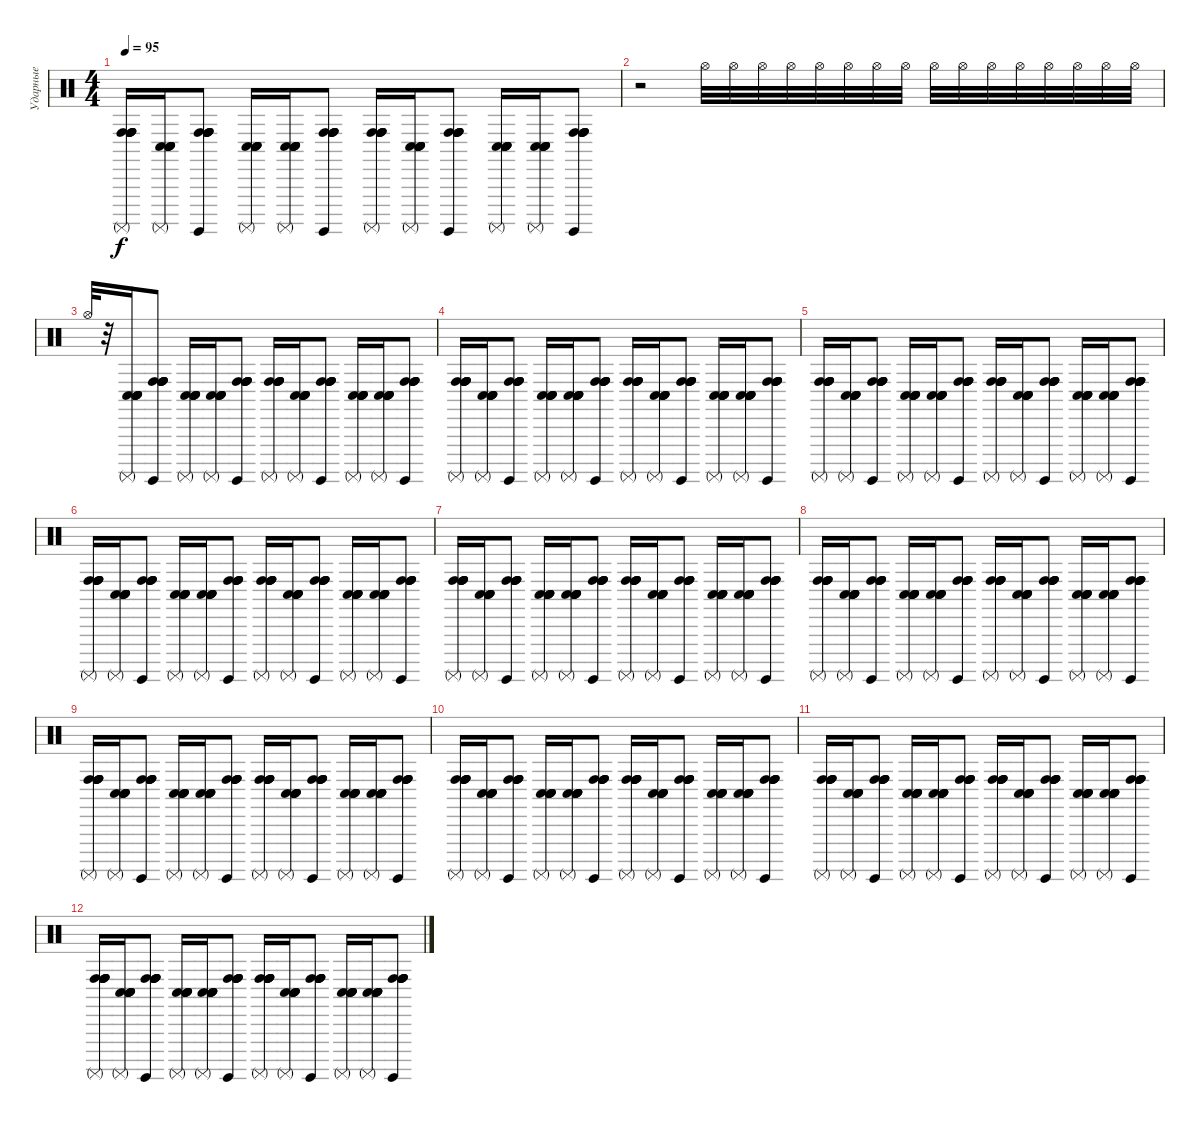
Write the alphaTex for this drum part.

\track ("Ударные" "Ударные") {instrument percussion}
\staff {score}
\articulation defaults
\ts (4 4)
\tempo 95
\clef neutral
\ks c
("Surdo (mute)" "Conga high (hit)" "Conga high (hit)" "Conga high (hit)" "Conga high (hit)" "Conga high (hit)").16{dy f} ("Surdo (mute)" "Conga low (hit)" "Conga low (hit)" "Conga low (hit)" "Conga low (hit)" "Conga low (hit)").16 ("Surdo (hit)" "Conga high (hit)" "Conga high (hit)" "Conga high (hit)" "Conga high (hit)" "Conga high (hit)").8 ("Surdo (mute)" "Conga low (hit)" "Conga low (hit)" "Conga low (hit)" "Conga low (hit)" "Conga low (hit)").16 ("Surdo (mute)" "Conga low (hit)" "Conga low (hit)" "Conga low (hit)" "Conga low (hit)" "Conga low (hit)").16 ("Surdo (hit)" "Conga high (hit)" "Conga high (hit)" "Conga high (hit)" "Conga high (hit)" "Conga high (hit)").8 ("Surdo (mute)" "Conga high (hit)" "Conga high (hit)" "Conga high (hit)" "Conga high (hit)" "Conga high (hit)").16 ("Surdo (mute)" "Conga low (hit)" "Conga low (hit)" "Conga low (hit)" "Conga low (hit)" "Conga low (hit)").16 ("Surdo (hit)" "Conga high (hit)" "Conga high (hit)" "Conga high (hit)" "Conga high (hit)" "Conga high (hit)").8 ("Surdo (mute)" "Conga low (hit)" "Conga low (hit)" "Conga low (hit)" "Conga low (hit)" "Conga low (hit)").16 ("Surdo (mute)" "Conga low (hit)" "Conga low (hit)" "Conga low (hit)" "Conga low (hit)" "Conga low (hit)").16 ("Surdo (hit)" "Conga high (hit)" "Conga high (hit)" "Conga high (hit)" "Conga high (hit)" "Conga high (hit)").8 |
r.2{volume 3} "Hi-Hat (open)".32{volume 10} "Hi-Hat (open)".32 "Hi-Hat (open)".32 "Hi-Hat (open)".32 "Hi-Hat (open)".32 "Hi-Hat (open)".32 "Hi-Hat (open)".32 "Hi-Hat (open)".32 "Hi-Hat (open)".32 "Hi-Hat (open)".32 "Hi-Hat (open)".32 "Hi-Hat (open)".32 "Hi-Hat (open)".32 "Hi-Hat (open)".32 "Hi-Hat (open)".32 "Hi-Hat (open)".32 |
"Hi-Hat (open)".32 r.32 ("Surdo (mute)" "Conga low (hit)" "Conga low (hit)" "Conga low (hit)" "Conga low (hit)" "Conga low (hit)").16 ("Surdo (hit)" "Conga high (hit)" "Conga high (hit)" "Conga high (hit)" "Conga high (hit)" "Conga high (hit)").8 ("Surdo (mute)" "Conga low (hit)" "Conga low (hit)" "Conga low (hit)" "Conga low (hit)" "Conga low (hit)").16 ("Surdo (mute)" "Conga low (hit)" "Conga low (hit)" "Conga low (hit)" "Conga low (hit)" "Conga low (hit)").16 ("Surdo (hit)" "Conga high (hit)" "Conga high (hit)" "Conga high (hit)" "Conga high (hit)" "Conga high (hit)").8{volume 7} ("Surdo (mute)" "Conga high (hit)" "Conga high (hit)" "Conga high (hit)" "Conga high (hit)" "Conga high (hit)").16 ("Surdo (mute)" "Conga low (hit)" "Conga low (hit)" "Conga low (hit)" "Conga low (hit)" "Conga low (hit)").16 ("Surdo (hit)" "Conga high (hit)" "Conga high (hit)" "Conga high (hit)" "Conga high (hit)" "Conga high (hit)").8 ("Surdo (mute)" "Conga low (hit)" "Conga low (hit)" "Conga low (hit)" "Conga low (hit)" "Conga low (hit)").16 ("Surdo (mute)" "Conga low (hit)" "Conga low (hit)" "Conga low (hit)" "Conga low (hit)" "Conga low (hit)").16 ("Surdo (hit)" "Conga high (hit)" "Conga high (hit)" "Conga high (hit)" "Conga high (hit)" "Conga high (hit)").8 |
("Surdo (mute)" "Conga high (hit)" "Conga high (hit)" "Conga high (hit)" "Conga high (hit)" "Conga high (hit)").16 ("Surdo (mute)" "Conga low (hit)" "Conga low (hit)" "Conga low (hit)" "Conga low (hit)" "Conga low (hit)").16 ("Surdo (hit)" "Conga high (hit)" "Conga high (hit)" "Conga high (hit)" "Conga high (hit)" "Conga high (hit)").8 ("Surdo (mute)" "Conga low (hit)" "Conga low (hit)" "Conga low (hit)" "Conga low (hit)" "Conga low (hit)").16 ("Surdo (mute)" "Conga low (hit)" "Conga low (hit)" "Conga low (hit)" "Conga low (hit)" "Conga low (hit)").16 ("Surdo (hit)" "Conga high (hit)" "Conga high (hit)" "Conga high (hit)" "Conga high (hit)" "Conga high (hit)").8 ("Surdo (mute)" "Conga high (hit)" "Conga high (hit)" "Conga high (hit)" "Conga high (hit)" "Conga high (hit)").16 ("Surdo (mute)" "Conga low (hit)" "Conga low (hit)" "Conga low (hit)" "Conga low (hit)" "Conga low (hit)").16 ("Surdo (hit)" "Conga high (hit)" "Conga high (hit)" "Conga high (hit)" "Conga high (hit)" "Conga high (hit)").8 ("Surdo (mute)" "Conga low (hit)" "Conga low (hit)" "Conga low (hit)" "Conga low (hit)" "Conga low (hit)").16 ("Surdo (mute)" "Conga low (hit)" "Conga low (hit)" "Conga low (hit)" "Conga low (hit)" "Conga low (hit)").16 ("Surdo (hit)" "Conga high (hit)" "Conga high (hit)" "Conga high (hit)" "Conga high (hit)" "Conga high (hit)").8 |
("Surdo (mute)" "Conga high (hit)" "Conga high (hit)" "Conga high (hit)" "Conga high (hit)" "Conga high (hit)").16 ("Surdo (mute)" "Conga low (hit)" "Conga low (hit)" "Conga low (hit)" "Conga low (hit)" "Conga low (hit)").16 ("Surdo (hit)" "Conga high (hit)" "Conga high (hit)" "Conga high (hit)" "Conga high (hit)" "Conga high (hit)").8 ("Surdo (mute)" "Conga low (hit)" "Conga low (hit)" "Conga low (hit)" "Conga low (hit)" "Conga low (hit)").16 ("Surdo (mute)" "Conga low (hit)" "Conga low (hit)" "Conga low (hit)" "Conga low (hit)" "Conga low (hit)").16 ("Surdo (hit)" "Conga high (hit)" "Conga high (hit)" "Conga high (hit)" "Conga high (hit)" "Conga high (hit)").8 ("Surdo (mute)" "Conga high (hit)" "Conga high (hit)" "Conga high (hit)" "Conga high (hit)" "Conga high (hit)").16 ("Surdo (mute)" "Conga low (hit)" "Conga low (hit)" "Conga low (hit)" "Conga low (hit)" "Conga low (hit)").16 ("Surdo (hit)" "Conga high (hit)" "Conga high (hit)" "Conga high (hit)" "Conga high (hit)" "Conga high (hit)").8 ("Surdo (mute)" "Conga low (hit)" "Conga low (hit)" "Conga low (hit)" "Conga low (hit)" "Conga low (hit)").16 ("Surdo (mute)" "Conga low (hit)" "Conga low (hit)" "Conga low (hit)" "Conga low (hit)" "Conga low (hit)").16 ("Surdo (hit)" "Conga high (hit)" "Conga high (hit)" "Conga high (hit)" "Conga high (hit)" "Conga high (hit)").8 |
("Surdo (mute)" "Conga high (hit)" "Conga high (hit)" "Conga high (hit)" "Conga high (hit)" "Conga high (hit)").16 ("Surdo (mute)" "Conga low (hit)" "Conga low (hit)" "Conga low (hit)" "Conga low (hit)" "Conga low (hit)").16 ("Surdo (hit)" "Conga high (hit)" "Conga high (hit)" "Conga high (hit)" "Conga high (hit)" "Conga high (hit)").8 ("Surdo (mute)" "Conga low (hit)" "Conga low (hit)" "Conga low (hit)" "Conga low (hit)" "Conga low (hit)").16 ("Surdo (mute)" "Conga low (hit)" "Conga low (hit)" "Conga low (hit)" "Conga low (hit)" "Conga low (hit)").16 ("Surdo (hit)" "Conga high (hit)" "Conga high (hit)" "Conga high (hit)" "Conga high (hit)" "Conga high (hit)").8 ("Surdo (mute)" "Conga high (hit)" "Conga high (hit)" "Conga high (hit)" "Conga high (hit)" "Conga high (hit)").16 ("Surdo (mute)" "Conga low (hit)" "Conga low (hit)" "Conga low (hit)" "Conga low (hit)" "Conga low (hit)").16 ("Surdo (hit)" "Conga high (hit)" "Conga high (hit)" "Conga high (hit)" "Conga high (hit)" "Conga high (hit)").8 ("Surdo (mute)" "Conga low (hit)" "Conga low (hit)" "Conga low (hit)" "Conga low (hit)" "Conga low (hit)").16 ("Surdo (mute)" "Conga low (hit)" "Conga low (hit)" "Conga low (hit)" "Conga low (hit)" "Conga low (hit)").16 ("Surdo (hit)" "Conga high (hit)" "Conga high (hit)" "Conga high (hit)" "Conga high (hit)" "Conga high (hit)").8 |
("Surdo (mute)" "Conga high (hit)" "Conga high (hit)" "Conga high (hit)" "Conga high (hit)" "Conga high (hit)").16 ("Surdo (mute)" "Conga low (hit)" "Conga low (hit)" "Conga low (hit)" "Conga low (hit)" "Conga low (hit)").16 ("Surdo (hit)" "Conga high (hit)" "Conga high (hit)" "Conga high (hit)" "Conga high (hit)" "Conga high (hit)").8 ("Surdo (mute)" "Conga low (hit)" "Conga low (hit)" "Conga low (hit)" "Conga low (hit)" "Conga low (hit)").16 ("Surdo (mute)" "Conga low (hit)" "Conga low (hit)" "Conga low (hit)" "Conga low (hit)" "Conga low (hit)").16 ("Surdo (hit)" "Conga high (hit)" "Conga high (hit)" "Conga high (hit)" "Conga high (hit)" "Conga high (hit)").8 ("Surdo (mute)" "Conga high (hit)" "Conga high (hit)" "Conga high (hit)" "Conga high (hit)" "Conga high (hit)").16 ("Surdo (mute)" "Conga low (hit)" "Conga low (hit)" "Conga low (hit)" "Conga low (hit)" "Conga low (hit)").16 ("Surdo (hit)" "Conga high (hit)" "Conga high (hit)" "Conga high (hit)" "Conga high (hit)" "Conga high (hit)").8 ("Surdo (mute)" "Conga low (hit)" "Conga low (hit)" "Conga low (hit)" "Conga low (hit)" "Conga low (hit)").16 ("Surdo (mute)" "Conga low (hit)" "Conga low (hit)" "Conga low (hit)" "Conga low (hit)" "Conga low (hit)").16 ("Surdo (hit)" "Conga high (hit)" "Conga high (hit)" "Conga high (hit)" "Conga high (hit)" "Conga high (hit)").8 |
("Surdo (mute)" "Conga high (hit)" "Conga high (hit)" "Conga high (hit)" "Conga high (hit)" "Conga high (hit)").16 ("Surdo (mute)" "Conga low (hit)" "Conga low (hit)" "Conga low (hit)" "Conga low (hit)" "Conga low (hit)").16 ("Surdo (hit)" "Conga high (hit)" "Conga high (hit)" "Conga high (hit)" "Conga high (hit)" "Conga high (hit)").8 ("Surdo (mute)" "Conga low (hit)" "Conga low (hit)" "Conga low (hit)" "Conga low (hit)" "Conga low (hit)").16 ("Surdo (mute)" "Conga low (hit)" "Conga low (hit)" "Conga low (hit)" "Conga low (hit)" "Conga low (hit)").16 ("Surdo (hit)" "Conga high (hit)" "Conga high (hit)" "Conga high (hit)" "Conga high (hit)" "Conga high (hit)").8 ("Surdo (mute)" "Conga high (hit)" "Conga high (hit)" "Conga high (hit)" "Conga high (hit)" "Conga high (hit)").16 ("Surdo (mute)" "Conga low (hit)" "Conga low (hit)" "Conga low (hit)" "Conga low (hit)" "Conga low (hit)").16 ("Surdo (hit)" "Conga high (hit)" "Conga high (hit)" "Conga high (hit)" "Conga high (hit)" "Conga high (hit)").8 ("Surdo (mute)" "Conga low (hit)" "Conga low (hit)" "Conga low (hit)" "Conga low (hit)" "Conga low (hit)").16 ("Surdo (mute)" "Conga low (hit)" "Conga low (hit)" "Conga low (hit)" "Conga low (hit)" "Conga low (hit)").16 ("Surdo (hit)" "Conga high (hit)" "Conga high (hit)" "Conga high (hit)" "Conga high (hit)" "Conga high (hit)").8 |
("Surdo (mute)" "Conga high (hit)" "Conga high (hit)" "Conga high (hit)" "Conga high (hit)" "Conga high (hit)").16 ("Surdo (mute)" "Conga low (hit)" "Conga low (hit)" "Conga low (hit)" "Conga low (hit)" "Conga low (hit)").16 ("Surdo (hit)" "Conga high (hit)" "Conga high (hit)" "Conga high (hit)" "Conga high (hit)" "Conga high (hit)").8 ("Surdo (mute)" "Conga low (hit)" "Conga low (hit)" "Conga low (hit)" "Conga low (hit)" "Conga low (hit)").16 ("Surdo (mute)" "Conga low (hit)" "Conga low (hit)" "Conga low (hit)" "Conga low (hit)" "Conga low (hit)").16 ("Surdo (hit)" "Conga high (hit)" "Conga high (hit)" "Conga high (hit)" "Conga high (hit)" "Conga high (hit)").8 ("Surdo (mute)" "Conga high (hit)" "Conga high (hit)" "Conga high (hit)" "Conga high (hit)" "Conga high (hit)").16 ("Surdo (mute)" "Conga low (hit)" "Conga low (hit)" "Conga low (hit)" "Conga low (hit)" "Conga low (hit)").16 ("Surdo (hit)" "Conga high (hit)" "Conga high (hit)" "Conga high (hit)" "Conga high (hit)" "Conga high (hit)").8 ("Surdo (mute)" "Conga low (hit)" "Conga low (hit)" "Conga low (hit)" "Conga low (hit)" "Conga low (hit)").16 ("Surdo (mute)" "Conga low (hit)" "Conga low (hit)" "Conga low (hit)" "Conga low (hit)" "Conga low (hit)").16 ("Surdo (hit)" "Conga high (hit)" "Conga high (hit)" "Conga high (hit)" "Conga high (hit)" "Conga high (hit)").8 |
("Surdo (mute)" "Conga high (hit)" "Conga high (hit)" "Conga high (hit)" "Conga high (hit)" "Conga high (hit)").16 ("Surdo (mute)" "Conga low (hit)" "Conga low (hit)" "Conga low (hit)" "Conga low (hit)" "Conga low (hit)").16 ("Surdo (hit)" "Conga high (hit)" "Conga high (hit)" "Conga high (hit)" "Conga high (hit)" "Conga high (hit)").8 ("Surdo (mute)" "Conga low (hit)" "Conga low (hit)" "Conga low (hit)" "Conga low (hit)" "Conga low (hit)").16 ("Surdo (mute)" "Conga low (hit)" "Conga low (hit)" "Conga low (hit)" "Conga low (hit)" "Conga low (hit)").16 ("Surdo (hit)" "Conga high (hit)" "Conga high (hit)" "Conga high (hit)" "Conga high (hit)" "Conga high (hit)").8 ("Surdo (mute)" "Conga high (hit)" "Conga high (hit)" "Conga high (hit)" "Conga high (hit)" "Conga high (hit)").16 ("Surdo (mute)" "Conga low (hit)" "Conga low (hit)" "Conga low (hit)" "Conga low (hit)" "Conga low (hit)").16 ("Surdo (hit)" "Conga high (hit)" "Conga high (hit)" "Conga high (hit)" "Conga high (hit)" "Conga high (hit)").8 ("Surdo (mute)" "Conga low (hit)" "Conga low (hit)" "Conga low (hit)" "Conga low (hit)" "Conga low (hit)").16 ("Surdo (mute)" "Conga low (hit)" "Conga low (hit)" "Conga low (hit)" "Conga low (hit)" "Conga low (hit)").16 ("Surdo (hit)" "Conga high (hit)" "Conga high (hit)" "Conga high (hit)" "Conga high (hit)" "Conga high (hit)").8 |
("Surdo (mute)" "Conga high (hit)" "Conga high (hit)" "Conga high (hit)" "Conga high (hit)" "Conga high (hit)").16 ("Surdo (mute)" "Conga low (hit)" "Conga low (hit)" "Conga low (hit)" "Conga low (hit)" "Conga low (hit)").16 ("Surdo (hit)" "Conga high (hit)" "Conga high (hit)" "Conga high (hit)" "Conga high (hit)" "Conga high (hit)").8 ("Surdo (mute)" "Conga low (hit)" "Conga low (hit)" "Conga low (hit)" "Conga low (hit)" "Conga low (hit)").16 ("Surdo (mute)" "Conga low (hit)" "Conga low (hit)" "Conga low (hit)" "Conga low (hit)" "Conga low (hit)").16 ("Surdo (hit)" "Conga high (hit)" "Conga high (hit)" "Conga high (hit)" "Conga high (hit)" "Conga high (hit)").8 ("Surdo (mute)" "Conga high (hit)" "Conga high (hit)" "Conga high (hit)" "Conga high (hit)" "Conga high (hit)").16 ("Surdo (mute)" "Conga low (hit)" "Conga low (hit)" "Conga low (hit)" "Conga low (hit)" "Conga low (hit)").16 ("Surdo (hit)" "Conga high (hit)" "Conga high (hit)" "Conga high (hit)" "Conga high (hit)" "Conga high (hit)").8 ("Surdo (mute)" "Conga low (hit)" "Conga low (hit)" "Conga low (hit)" "Conga low (hit)" "Conga low (hit)").16 ("Surdo (mute)" "Conga low (hit)" "Conga low (hit)" "Conga low (hit)" "Conga low (hit)" "Conga low (hit)").16 ("Surdo (hit)" "Conga high (hit)" "Conga high (hit)" "Conga high (hit)" "Conga high (hit)" "Conga high (hit)").8 |
("Surdo (mute)" "Conga high (hit)" "Conga high (hit)" "Conga high (hit)" "Conga high (hit)" "Conga high (hit)").16 ("Surdo (mute)" "Conga low (hit)" "Conga low (hit)" "Conga low (hit)" "Conga low (hit)" "Conga low (hit)").16 ("Surdo (hit)" "Conga high (hit)" "Conga high (hit)" "Conga high (hit)" "Conga high (hit)" "Conga high (hit)").8 ("Surdo (mute)" "Conga low (hit)" "Conga low (hit)" "Conga low (hit)" "Conga low (hit)" "Conga low (hit)").16 ("Surdo (mute)" "Conga low (hit)" "Conga low (hit)" "Conga low (hit)" "Conga low (hit)" "Conga low (hit)").16 ("Surdo (hit)" "Conga high (hit)" "Conga high (hit)" "Conga high (hit)" "Conga high (hit)" "Conga high (hit)").8 ("Surdo (mute)" "Conga high (hit)" "Conga high (hit)" "Conga high (hit)" "Conga high (hit)" "Conga high (hit)").16 ("Surdo (mute)" "Conga low (hit)" "Conga low (hit)" "Conga low (hit)" "Conga low (hit)" "Conga low (hit)").16 ("Surdo (hit)" "Conga high (hit)" "Conga high (hit)" "Conga high (hit)" "Conga high (hit)" "Conga high (hit)").8 ("Surdo (mute)" "Conga low (hit)" "Conga low (hit)" "Conga low (hit)" "Conga low (hit)" "Conga low (hit)").16 ("Surdo (mute)" "Conga low (hit)" "Conga low (hit)" "Conga low (hit)" "Conga low (hit)" "Conga low (hit)").16 ("Surdo (hit)" "Conga high (hit)" "Conga high (hit)" "Conga high (hit)" "Conga high (hit)" "Conga high (hit)").8
